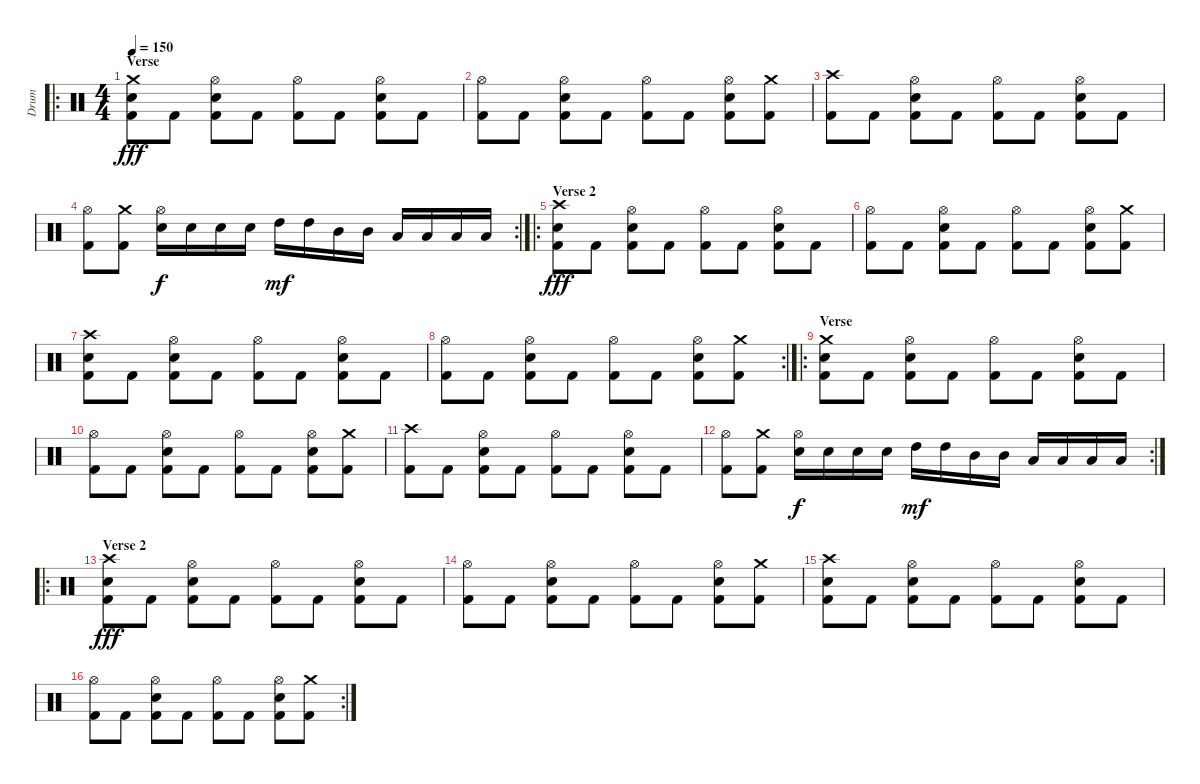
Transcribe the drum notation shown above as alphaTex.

\track ("Drum" "Drum") {instrument percussion}
\staff {score}
\articulation defaults
\ro
\ts (4 4)
\section ("" "Verse")
\tempo 150
\clef neutral
\ks c
("Crash medium (hit)" "Snare (hit) 2" "Kick (hit) 2").8{dy fff} "Kick (hit) 2".8 ("Hi-Hat (open)" "Snare (hit) 2" "Kick (hit) 2").8 "Kick (hit) 2".8 ("Hi-Hat (open)" "Kick (hit) 2").8 "Kick (hit) 2".8 ("Hi-Hat (open)" "Snare (hit) 2" "Kick (hit) 2").8 "Kick (hit) 2".8 |
("Hi-Hat (open)" "Kick (hit) 2").8 "Kick (hit) 2".8 ("Hi-Hat (open)" "Snare (hit) 2" "Kick (hit) 2").8 "Kick (hit) 2".8 ("Hi-Hat (open)" "Kick (hit) 2").8 "Kick (hit) 2".8 ("Hi-Hat (open)" "Snare (hit) 2" "Kick (hit) 2").8 ("Crash medium (hit)" "Kick (hit) 2").8 |
("Crash high (hit)" "Kick (hit) 2").8 "Kick (hit) 2".8 ("Hi-Hat (open)" "Snare (hit) 2" "Kick (hit) 2").8 "Kick (hit) 2".8 ("Hi-Hat (open)" "Kick (hit) 2").8 "Kick (hit) 2".8 ("Hi-Hat (open)" "Snare (hit) 2" "Kick (hit) 2").8 "Kick (hit) 2".8 |
\rc 2
("Hi-Hat (open)" "Kick (hit) 2").8 ("Crash medium (hit)" "Kick (hit) 2").8 ("Hi-Hat (open)" "Snare (hit) 2").16{dy f} "Snare (hit) 2".16 "Snare (hit) 2".16 "Snare (hit) 2".16 "High Tom (hit)".16{dy mf} "High Tom (hit)".16 "Mid Tom (hit)".16 "Mid Tom (hit)".16 "Low Tom (hit)".16 "Low Tom (hit)".16 "Low Tom (hit)".16 "Low Tom (hit)".16 |
\ro
\section ("" "Verse 2")
("Crash high (hit)" "Snare (hit) 2" "Kick (hit) 2").8{dy fff} "Kick (hit) 2".8 ("Hi-Hat (open)" "Snare (hit) 2" "Kick (hit) 2").8 "Kick (hit) 2".8 ("Hi-Hat (open)" "Kick (hit) 2").8 "Kick (hit) 2".8 ("Hi-Hat (open)" "Snare (hit) 2" "Kick (hit) 2").8 "Kick (hit) 2".8 |
("Hi-Hat (open)" "Kick (hit) 2").8 "Kick (hit) 2".8 ("Hi-Hat (open)" "Snare (hit) 2" "Kick (hit) 2").8 "Kick (hit) 2".8 ("Hi-Hat (open)" "Kick (hit) 2").8 "Kick (hit) 2".8 ("Hi-Hat (open)" "Snare (hit) 2" "Kick (hit) 2").8 ("Crash medium (hit)" "Kick (hit) 2").8 |
("Crash high (hit)" "Snare (hit) 2" "Kick (hit) 2").8 "Kick (hit) 2".8 ("Hi-Hat (open)" "Snare (hit) 2" "Kick (hit) 2").8 "Kick (hit) 2".8 ("Hi-Hat (open)" "Kick (hit) 2").8 "Kick (hit) 2".8 ("Hi-Hat (open)" "Snare (hit) 2" "Kick (hit) 2").8 "Kick (hit) 2".8 |
\rc 2
("Hi-Hat (open)" "Kick (hit) 2").8 "Kick (hit) 2".8 ("Hi-Hat (open)" "Snare (hit) 2" "Kick (hit) 2").8 "Kick (hit) 2".8 ("Hi-Hat (open)" "Kick (hit) 2").8 "Kick (hit) 2".8 ("Hi-Hat (open)" "Snare (hit) 2" "Kick (hit) 2").8 ("Crash medium (hit)" "Kick (hit) 2").8 |
\ro
\section ("" "Verse")
("Crash medium (hit)" "Snare (hit) 2" "Kick (hit) 2").8 "Kick (hit) 2".8 ("Hi-Hat (open)" "Snare (hit) 2" "Kick (hit) 2").8 "Kick (hit) 2".8 ("Hi-Hat (open)" "Kick (hit) 2").8 "Kick (hit) 2".8 ("Hi-Hat (open)" "Snare (hit) 2" "Kick (hit) 2").8 "Kick (hit) 2".8 |
("Hi-Hat (open)" "Kick (hit) 2").8 "Kick (hit) 2".8 ("Hi-Hat (open)" "Snare (hit) 2" "Kick (hit) 2").8 "Kick (hit) 2".8 ("Hi-Hat (open)" "Kick (hit) 2").8 "Kick (hit) 2".8 ("Hi-Hat (open)" "Snare (hit) 2" "Kick (hit) 2").8 ("Crash medium (hit)" "Kick (hit) 2").8 |
("Crash high (hit)" "Kick (hit) 2").8 "Kick (hit) 2".8 ("Hi-Hat (open)" "Snare (hit) 2" "Kick (hit) 2").8 "Kick (hit) 2".8 ("Hi-Hat (open)" "Kick (hit) 2").8 "Kick (hit) 2".8 ("Hi-Hat (open)" "Snare (hit) 2" "Kick (hit) 2").8 "Kick (hit) 2".8 |
\rc 2
("Hi-Hat (open)" "Kick (hit) 2").8 ("Crash medium (hit)" "Kick (hit) 2").8 ("Hi-Hat (open)" "Snare (hit) 2").16{dy f} "Snare (hit) 2".16 "Snare (hit) 2".16 "Snare (hit) 2".16 "High Tom (hit)".16{dy mf} "High Tom (hit)".16 "Mid Tom (hit)".16 "Mid Tom (hit)".16 "Low Tom (hit)".16 "Low Tom (hit)".16 "Low Tom (hit)".16 "Low Tom (hit)".16 |
\ro
\section ("" "Verse 2")
("Crash high (hit)" "Snare (hit) 2" "Kick (hit) 2").8{dy fff} "Kick (hit) 2".8 ("Hi-Hat (open)" "Snare (hit) 2" "Kick (hit) 2").8 "Kick (hit) 2".8 ("Hi-Hat (open)" "Kick (hit) 2").8 "Kick (hit) 2".8 ("Hi-Hat (open)" "Snare (hit) 2" "Kick (hit) 2").8 "Kick (hit) 2".8 |
("Hi-Hat (open)" "Kick (hit) 2").8 "Kick (hit) 2".8 ("Hi-Hat (open)" "Snare (hit) 2" "Kick (hit) 2").8 "Kick (hit) 2".8 ("Hi-Hat (open)" "Kick (hit) 2").8 "Kick (hit) 2".8 ("Hi-Hat (open)" "Snare (hit) 2" "Kick (hit) 2").8 ("Crash medium (hit)" "Kick (hit) 2").8 |
("Crash high (hit)" "Snare (hit) 2" "Kick (hit) 2").8 "Kick (hit) 2".8 ("Hi-Hat (open)" "Snare (hit) 2" "Kick (hit) 2").8 "Kick (hit) 2".8 ("Hi-Hat (open)" "Kick (hit) 2").8 "Kick (hit) 2".8 ("Hi-Hat (open)" "Snare (hit) 2" "Kick (hit) 2").8 "Kick (hit) 2".8 |
\rc 2
("Hi-Hat (open)" "Kick (hit) 2").8 "Kick (hit) 2".8 ("Hi-Hat (open)" "Snare (hit) 2" "Kick (hit) 2").8 "Kick (hit) 2".8 ("Hi-Hat (open)" "Kick (hit) 2").8 "Kick (hit) 2".8 ("Hi-Hat (open)" "Snare (hit) 2" "Kick (hit) 2").8 ("Crash medium (hit)" "Kick (hit) 2").8
